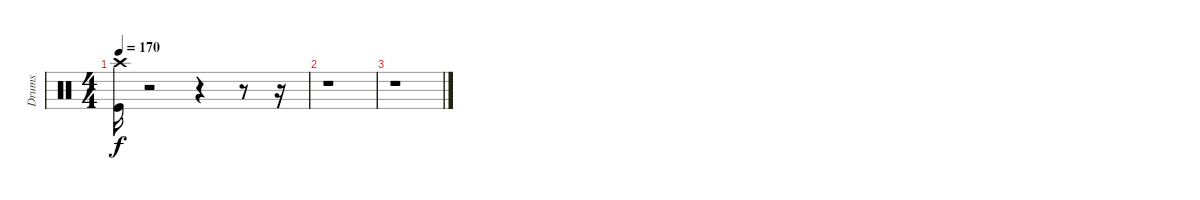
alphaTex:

\track ("Drums" "Drums") {instrument percussion}
\staff {score}
\articulation defaults
\ts (4 4)
\tempo 170
\clef neutral
\ks c
("Kick (hit)" "Crash high (hit)").16{dy f} r.2 r.4 r.8 r.16 |
r.1 |
r.1
